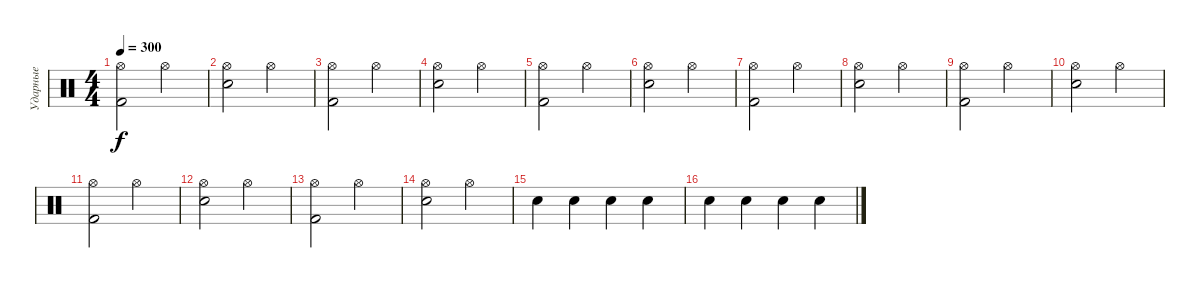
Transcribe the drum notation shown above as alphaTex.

\track ("Ударные" "Ударные") {instrument percussion}
\staff {score}
\articulation defaults
\ts (4 4)
\tempo 300
\clef neutral
\ks c
("Hi-Hat (open)" "Kick (hit) 2").2{dy f} "Hi-Hat (open)".2 |
("Hi-Hat (open)" "Snare (hit) 2").2 "Hi-Hat (open)".2 |
("Hi-Hat (open)" "Kick (hit) 2").2 "Hi-Hat (open)".2 |
("Hi-Hat (open)" "Snare (hit) 2").2 "Hi-Hat (open)".2 |
("Hi-Hat (open)" "Kick (hit) 2").2 "Hi-Hat (open)".2 |
("Hi-Hat (open)" "Snare (hit) 2").2 "Hi-Hat (open)".2 |
("Hi-Hat (open)" "Kick (hit) 2").2 "Hi-Hat (open)".2 |
("Hi-Hat (open)" "Snare (hit) 2").2 "Hi-Hat (open)".2 |
("Hi-Hat (open)" "Kick (hit) 2").2 "Hi-Hat (open)".2 |
("Hi-Hat (open)" "Snare (hit) 2").2 "Hi-Hat (open)".2 |
("Hi-Hat (open)" "Kick (hit) 2").2 "Hi-Hat (open)".2 |
("Hi-Hat (open)" "Snare (hit) 2").2 "Hi-Hat (open)".2 |
("Hi-Hat (open)" "Kick (hit) 2").2 "Hi-Hat (open)".2 |
("Hi-Hat (open)" "Snare (hit) 2").2 "Hi-Hat (open)".2 |
"Snare (hit) 2".4 "Snare (hit) 2".4 "Snare (hit) 2".4 "Snare (hit) 2".4 |
"Snare (hit) 2".4 "Snare (hit) 2".4 "Snare (hit) 2".4 "Snare (hit) 2".4
